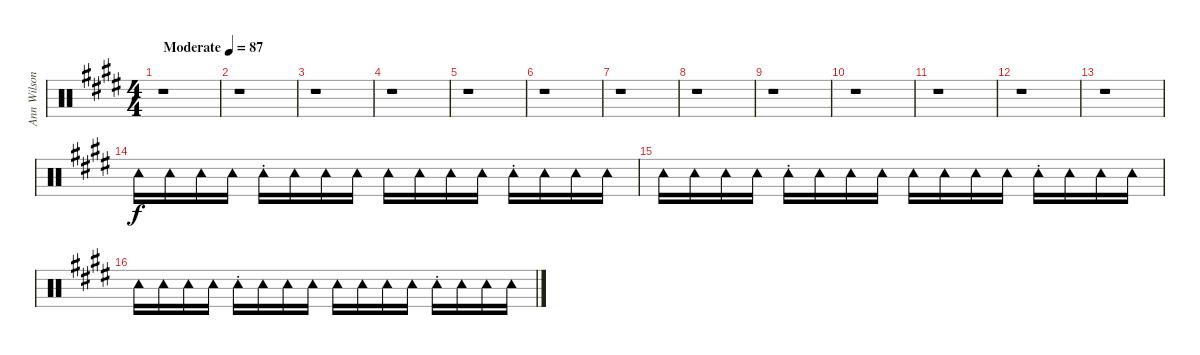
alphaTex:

\track ("Ann Wilson Tambrine" "Ann Wilson") {instrument percussion}
\staff {score}
\articulation defaults
\ts (4 4)
\tempo (87 "Moderate")
\clef neutral
\ks e
r.1{dy f} |
r.1 |
r.1 |
r.1 |
r.1 |
r.1 |
r.1 |
r.1 |
r.1 |
r.1 |
r.1 |
r.1 |
r.1 |
"Tambourine (hit)".16{volume 10} "Tambourine (hit)".16 "Tambourine (hit)".16 "Tambourine (hit)".16 "Tambourine (hit)"{st}.16 "Tambourine (hit)".16 "Tambourine (hit)".16 "Tambourine (hit)".16 "Tambourine (hit)".16 "Tambourine (hit)".16 "Tambourine (hit)".16 "Tambourine (hit)".16 "Tambourine (hit)"{st}.16 "Tambourine (hit)".16 "Tambourine (hit)".16 "Tambourine (hit)".16 |
"Tambourine (hit)".16 "Tambourine (hit)".16 "Tambourine (hit)".16 "Tambourine (hit)".16 "Tambourine (hit)"{st}.16 "Tambourine (hit)".16 "Tambourine (hit)".16 "Tambourine (hit)".16 "Tambourine (hit)".16 "Tambourine (hit)".16 "Tambourine (hit)".16 "Tambourine (hit)".16 "Tambourine (hit)"{st}.16 "Tambourine (hit)".16 "Tambourine (hit)".16 "Tambourine (hit)".16 |
"Tambourine (hit)".16 "Tambourine (hit)".16 "Tambourine (hit)".16 "Tambourine (hit)".16 "Tambourine (hit)"{st}.16 "Tambourine (hit)".16 "Tambourine (hit)".16 "Tambourine (hit)".16 "Tambourine (hit)".16 "Tambourine (hit)".16 "Tambourine (hit)".16 "Tambourine (hit)".16 "Tambourine (hit)"{st}.16 "Tambourine (hit)".16 "Tambourine (hit)".16 "Tambourine (hit)".16
